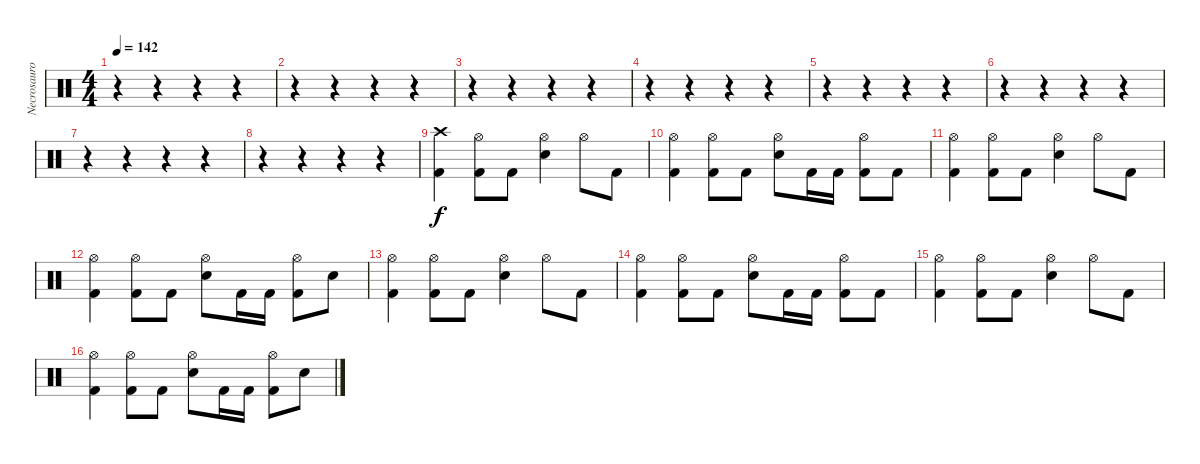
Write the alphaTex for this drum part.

\track ("Necrosauron" "Necrosauro") {instrument percussion}
\staff {score}
\articulation defaults
\ts (4 4)
\tempo 142
\clef neutral
\ks c
r.4{dy f} r.4 r.4 r.4 |
r.4 r.4 r.4 r.4 |
r.4 r.4 r.4 r.4 |
r.4 r.4 r.4 r.4 |
r.4 r.4 r.4 r.4 |
r.4 r.4 r.4 r.4 |
r.4 r.4 r.4 r.4 |
r.4 r.4 r.4 r.4 |
("Crash high (hit)" "Kick (hit) 2").4 ("Hi-Hat (open)" "Kick (hit) 2").8 "Kick (hit) 2".8 ("Hi-Hat (open)" "Snare (hit) 2").4 "Hi-Hat (open)".8 "Kick (hit) 2".8 |
("Hi-Hat (open)" "Kick (hit) 2").4 ("Hi-Hat (open)" "Kick (hit) 2").8 "Kick (hit) 2".8 ("Hi-Hat (open)" "Snare (hit) 2").8 "Kick (hit) 2".16 "Kick (hit) 2".16 ("Hi-Hat (open)" "Kick (hit) 2").8 "Kick (hit) 2".8 |
("Hi-Hat (open)" "Kick (hit) 2").4 ("Hi-Hat (open)" "Kick (hit) 2").8 "Kick (hit) 2".8 ("Hi-Hat (open)" "Snare (hit) 2").4 "Hi-Hat (open)".8 "Kick (hit) 2".8 |
("Hi-Hat (open)" "Kick (hit) 2").4 ("Hi-Hat (open)" "Kick (hit) 2").8 "Kick (hit) 2".8 ("Hi-Hat (open)" "Snare (hit) 2").8 "Kick (hit) 2".16 "Kick (hit) 2".16 ("Hi-Hat (open)" "Kick (hit) 2").8 "Snare (hit) 2".8 |
("Hi-Hat (open)" "Kick (hit) 2").4 ("Hi-Hat (open)" "Kick (hit) 2").8 "Kick (hit) 2".8 ("Hi-Hat (open)" "Snare (hit) 2").4 "Hi-Hat (open)".8 "Kick (hit) 2".8 |
("Hi-Hat (open)" "Kick (hit) 2").4 ("Hi-Hat (open)" "Kick (hit) 2").8 "Kick (hit) 2".8 ("Hi-Hat (open)" "Snare (hit) 2").8 "Kick (hit) 2".16 "Kick (hit) 2".16 ("Hi-Hat (open)" "Kick (hit) 2").8 "Kick (hit) 2".8 |
("Hi-Hat (open)" "Kick (hit) 2").4 ("Hi-Hat (open)" "Kick (hit) 2").8 "Kick (hit) 2".8 ("Hi-Hat (open)" "Snare (hit) 2").4 "Hi-Hat (open)".8 "Kick (hit) 2".8 |
("Hi-Hat (open)" "Kick (hit) 2").4 ("Hi-Hat (open)" "Kick (hit) 2").8 "Kick (hit) 2".8 ("Hi-Hat (open)" "Snare (hit) 2").8 "Kick (hit) 2".16 "Kick (hit) 2".16 ("Hi-Hat (open)" "Kick (hit) 2").8 "Snare (hit) 2".8
